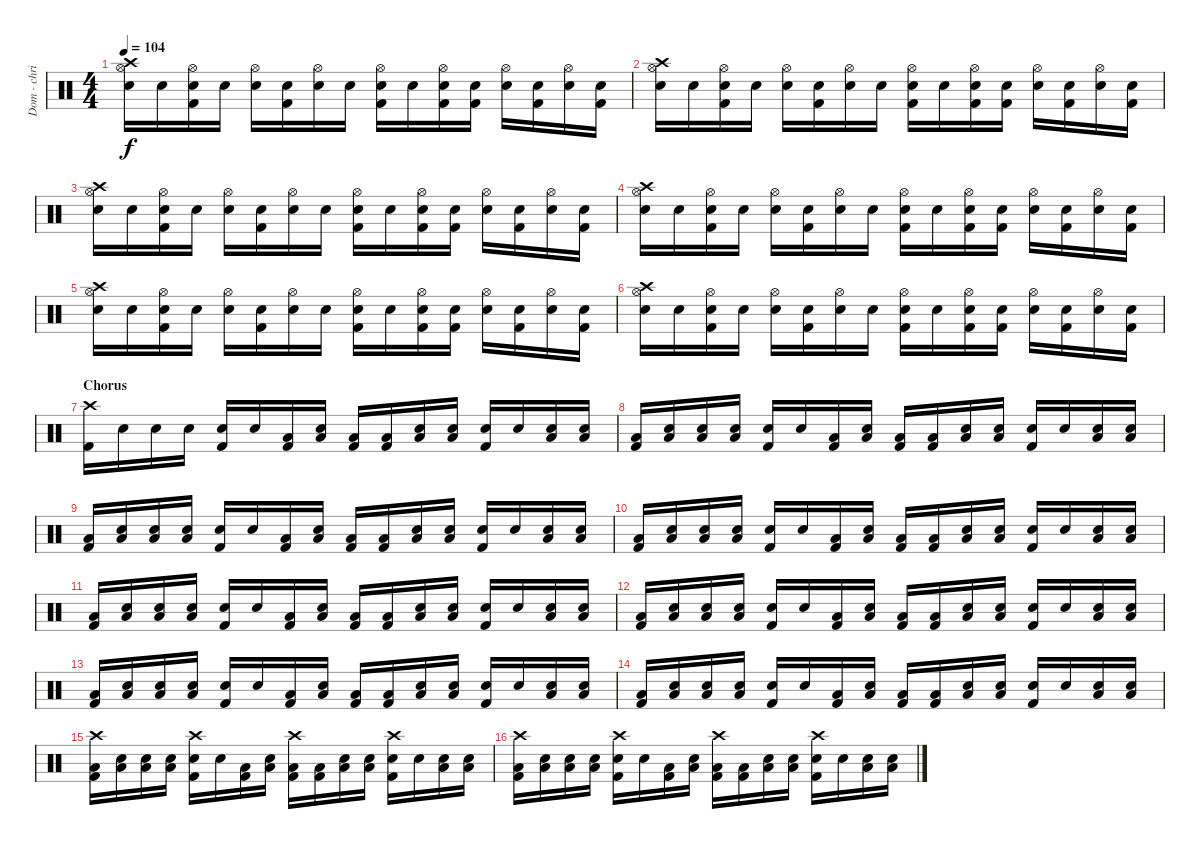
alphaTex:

\track ("Dom - chris" "Dom - chri") {instrument percussion}
\staff {score}
\articulation defaults
\ts (4 4)
\tempo 104
\clef neutral
\ks c
("Crash high (hit)" "Hi-Hat (open)" "Snare (hit) 2").16{dy f} "Snare (hit) 2"{x}.16 ("Hi-Hat (open)" "Snare (hit) 2"{x} "Kick (hit) 2").16 "Snare (hit) 2".16 ("Hi-Hat (open)" "Snare (hit) 2"{x}).16 ("Snare (hit) 2"{x} "Kick (hit) 2").16 ("Hi-Hat (open)" "Snare (hit) 2").16 "Snare (hit) 2"{x}.16 ("Hi-Hat (open)" "Snare (hit) 2"{x} "Kick (hit) 2").16 "Snare (hit) 2".16 ("Hi-Hat (open)" "Snare (hit) 2"{x} "Kick (hit) 2").16 ("Snare (hit) 2"{x} "Kick (hit) 2").16 ("Hi-Hat (open)" "Snare (hit) 2").16 ("Snare (hit) 2"{x} "Kick (hit) 2").16 ("Hi-Hat (open)" "Snare (hit) 2").16 ("Snare (hit) 2"{x} "Kick (hit) 2").16 |
("Crash high (hit)" "Hi-Hat (open)" "Snare (hit) 2").16 "Snare (hit) 2"{x}.16 ("Hi-Hat (open)" "Snare (hit) 2"{x} "Kick (hit) 2").16 "Snare (hit) 2".16 ("Hi-Hat (open)" "Snare (hit) 2"{x}).16 ("Snare (hit) 2"{x} "Kick (hit) 2").16 ("Hi-Hat (open)" "Snare (hit) 2").16 "Snare (hit) 2"{x}.16 ("Hi-Hat (open)" "Snare (hit) 2"{x} "Kick (hit) 2").16 "Snare (hit) 2".16 ("Hi-Hat (open)" "Snare (hit) 2"{x} "Kick (hit) 2").16 ("Snare (hit) 2"{x} "Kick (hit) 2").16 ("Hi-Hat (open)" "Snare (hit) 2").16 ("Snare (hit) 2"{x} "Kick (hit) 2").16 ("Hi-Hat (open)" "Snare (hit) 2").16 ("Snare (hit) 2"{x} "Kick (hit) 2").16 |
("Crash high (hit)" "Hi-Hat (open)" "Snare (hit) 2").16 "Snare (hit) 2"{x}.16 ("Hi-Hat (open)" "Snare (hit) 2"{x} "Kick (hit) 2").16 "Snare (hit) 2".16 ("Hi-Hat (open)" "Snare (hit) 2"{x}).16 ("Snare (hit) 2"{x} "Kick (hit) 2").16 ("Hi-Hat (open)" "Snare (hit) 2").16 "Snare (hit) 2"{x}.16 ("Hi-Hat (open)" "Snare (hit) 2"{x} "Kick (hit) 2").16 "Snare (hit) 2".16 ("Hi-Hat (open)" "Snare (hit) 2"{x} "Kick (hit) 2").16 ("Snare (hit) 2"{x} "Kick (hit) 2").16 ("Hi-Hat (open)" "Snare (hit) 2").16 ("Snare (hit) 2"{x} "Kick (hit) 2").16 ("Hi-Hat (open)" "Snare (hit) 2").16 ("Snare (hit) 2"{x} "Kick (hit) 2").16 |
("Crash high (hit)" "Hi-Hat (open)" "Snare (hit) 2").16 "Snare (hit) 2"{x}.16 ("Hi-Hat (open)" "Snare (hit) 2"{x} "Kick (hit) 2").16 "Snare (hit) 2".16 ("Hi-Hat (open)" "Snare (hit) 2"{x}).16 ("Snare (hit) 2"{x} "Kick (hit) 2").16 ("Hi-Hat (open)" "Snare (hit) 2").16 "Snare (hit) 2"{x}.16 ("Hi-Hat (open)" "Snare (hit) 2"{x} "Kick (hit) 2").16 "Snare (hit) 2".16 ("Hi-Hat (open)" "Snare (hit) 2"{x} "Kick (hit) 2").16 ("Snare (hit) 2"{x} "Kick (hit) 2").16 ("Hi-Hat (open)" "Snare (hit) 2").16 ("Snare (hit) 2"{x} "Kick (hit) 2").16 ("Hi-Hat (open)" "Snare (hit) 2").16 ("Snare (hit) 2"{x} "Kick (hit) 2").16 |
("Crash high (hit)" "Hi-Hat (open)" "Snare (hit) 2").16 "Snare (hit) 2"{x}.16 ("Hi-Hat (open)" "Snare (hit) 2"{x} "Kick (hit) 2").16 "Snare (hit) 2".16 ("Hi-Hat (open)" "Snare (hit) 2"{x}).16 ("Snare (hit) 2"{x} "Kick (hit) 2").16 ("Hi-Hat (open)" "Snare (hit) 2").16 "Snare (hit) 2"{x}.16 ("Hi-Hat (open)" "Snare (hit) 2"{x} "Kick (hit) 2").16 "Snare (hit) 2".16 ("Hi-Hat (open)" "Snare (hit) 2"{x} "Kick (hit) 2").16 ("Snare (hit) 2"{x} "Kick (hit) 2").16 ("Hi-Hat (open)" "Snare (hit) 2").16 ("Snare (hit) 2"{x} "Kick (hit) 2").16 ("Hi-Hat (open)" "Snare (hit) 2").16 ("Snare (hit) 2"{x} "Kick (hit) 2").16 |
("Crash high (hit)" "Hi-Hat (open)" "Snare (hit) 2").16 "Snare (hit) 2"{x}.16 ("Hi-Hat (open)" "Snare (hit) 2"{x} "Kick (hit) 2").16 "Snare (hit) 2".16 ("Hi-Hat (open)" "Snare (hit) 2"{x}).16 ("Snare (hit) 2"{x} "Kick (hit) 2").16 ("Hi-Hat (open)" "Snare (hit) 2").16 "Snare (hit) 2"{x}.16 ("Hi-Hat (open)" "Snare (hit) 2"{x} "Kick (hit) 2").16 "Snare (hit) 2".16 ("Hi-Hat (open)" "Snare (hit) 2"{x} "Kick (hit) 2").16 ("Snare (hit) 2"{x} "Kick (hit) 2").16 ("Hi-Hat (open)" "Snare (hit) 2").16 ("Snare (hit) 2"{x} "Kick (hit) 2").16 ("Hi-Hat (open)" "Snare (hit) 2").16 ("Snare (hit) 2"{x} "Kick (hit) 2").16 |
\section ("" "Chorus")
("Crash high (hit)" "Kick (hit) 2").16 "Snare (hit)"{x}.16 "Snare (hit)"{x}.16 "Snare (hit)"{x}.16 ("Snare (hit) 2" "Kick (hit) 2").16 "Snare (hit)"{x}.16 ("Low Tom (hit)" "Kick (hit) 2").16 ("Low Floor Tom (hit)" "Snare (hit)"{x}).16 ("Low Tom (hit)" "Kick (hit) 2").16 ("Low Floor Tom (hit)" "Kick (hit) 2"{x}).16 ("Low Tom (hit)" "Snare (hit)"{x}).16 ("Low Floor Tom (hit)" "Snare (hit)"{x}).16 ("Snare (hit) 2" "Kick (hit) 2").16 "Snare (hit)"{x}.16 ("Low Tom (hit)" "Snare (hit)"{x}).16 ("Low Floor Tom (hit)" "Snare (hit)"{x}).16 |
("Low Tom (hit)" "Kick (hit) 2").16 ("Low Floor Tom (hit)" "Snare (hit)"{x}).16 ("Low Tom (hit)" "Snare (hit)"{x}).16 ("Low Floor Tom (hit)" "Snare (hit)"{x}).16 ("Snare (hit) 2" "Kick (hit) 2").16 "Snare (hit)"{x}.16 ("Low Tom (hit)" "Kick (hit) 2").16 ("Low Floor Tom (hit)" "Snare (hit)"{x}).16 ("Low Tom (hit)" "Kick (hit) 2").16 ("Low Floor Tom (hit)" "Kick (hit) 2"{x}).16 ("Low Tom (hit)" "Snare (hit)"{x}).16 ("Low Floor Tom (hit)" "Snare (hit)"{x}).16 ("Snare (hit) 2" "Kick (hit) 2").16 "Snare (hit)"{x}.16 ("Low Tom (hit)" "Snare (hit)"{x}).16 ("Low Floor Tom (hit)" "Snare (hit)"{x}).16 |
("Low Tom (hit)" "Kick (hit) 2").16 ("Low Floor Tom (hit)" "Snare (hit)"{x}).16 ("Low Tom (hit)" "Snare (hit)"{x}).16 ("Low Floor Tom (hit)" "Snare (hit)"{x}).16 ("Snare (hit) 2" "Kick (hit) 2").16 "Snare (hit)"{x}.16 ("Low Tom (hit)" "Kick (hit) 2").16 ("Low Floor Tom (hit)" "Snare (hit)"{x}).16 ("Low Tom (hit)" "Kick (hit) 2").16 ("Low Floor Tom (hit)" "Kick (hit) 2"{x}).16 ("Low Tom (hit)" "Snare (hit)"{x}).16 ("Low Floor Tom (hit)" "Snare (hit)"{x}).16 ("Snare (hit) 2" "Kick (hit) 2").16 "Snare (hit)"{x}.16 ("Low Tom (hit)" "Snare (hit)"{x}).16 ("Low Floor Tom (hit)" "Snare (hit)"{x}).16 |
("Low Tom (hit)" "Kick (hit) 2").16 ("Low Floor Tom (hit)" "Snare (hit)"{x}).16 ("Low Tom (hit)" "Snare (hit)"{x}).16 ("Low Floor Tom (hit)" "Snare (hit)"{x}).16 ("Snare (hit) 2" "Kick (hit) 2").16 "Snare (hit)"{x}.16 ("Low Tom (hit)" "Kick (hit) 2").16 ("Low Floor Tom (hit)" "Snare (hit)"{x}).16 ("Low Tom (hit)" "Kick (hit) 2").16 ("Low Floor Tom (hit)" "Kick (hit) 2"{x}).16 ("Low Tom (hit)" "Snare (hit)"{x}).16 ("Low Floor Tom (hit)" "Snare (hit)"{x}).16 ("Snare (hit) 2" "Kick (hit) 2").16 "Snare (hit)"{x}.16 ("Low Tom (hit)" "Snare (hit)"{x}).16 ("Low Floor Tom (hit)" "Snare (hit)"{x}).16 |
("Low Tom (hit)" "Kick (hit) 2").16 ("Low Floor Tom (hit)" "Snare (hit)"{x}).16 ("Low Tom (hit)" "Snare (hit)"{x}).16 ("Low Floor Tom (hit)" "Snare (hit)"{x}).16 ("Snare (hit) 2" "Kick (hit) 2").16 "Snare (hit)"{x}.16 ("Low Tom (hit)" "Kick (hit) 2").16 ("Low Floor Tom (hit)" "Snare (hit)"{x}).16 ("Low Tom (hit)" "Kick (hit) 2").16 ("Low Floor Tom (hit)" "Kick (hit) 2"{x}).16 ("Low Tom (hit)" "Snare (hit)"{x}).16 ("Low Floor Tom (hit)" "Snare (hit)"{x}).16 ("Snare (hit) 2" "Kick (hit) 2").16 "Snare (hit)"{x}.16 ("Low Tom (hit)" "Snare (hit)"{x}).16 ("Low Floor Tom (hit)" "Snare (hit)"{x}).16 |
("Low Tom (hit)" "Kick (hit) 2").16 ("Low Floor Tom (hit)" "Snare (hit)"{x}).16 ("Low Tom (hit)" "Snare (hit)"{x}).16 ("Low Floor Tom (hit)" "Snare (hit)"{x}).16 ("Snare (hit) 2" "Kick (hit) 2").16 "Snare (hit)"{x}.16 ("Low Tom (hit)" "Kick (hit) 2").16 ("Low Floor Tom (hit)" "Snare (hit)"{x}).16 ("Low Tom (hit)" "Kick (hit) 2").16 ("Low Floor Tom (hit)" "Kick (hit) 2"{x}).16 ("Low Tom (hit)" "Snare (hit)"{x}).16 ("Low Floor Tom (hit)" "Snare (hit)"{x}).16 ("Snare (hit) 2" "Kick (hit) 2").16 "Snare (hit)"{x}.16 ("Low Tom (hit)" "Snare (hit)"{x}).16 ("Low Floor Tom (hit)" "Snare (hit)"{x}).16 |
("Low Tom (hit)" "Kick (hit) 2").16 ("Low Floor Tom (hit)" "Snare (hit)"{x}).16 ("Low Tom (hit)" "Snare (hit)"{x}).16 ("Low Floor Tom (hit)" "Snare (hit)"{x}).16 ("Snare (hit) 2" "Kick (hit) 2").16 "Snare (hit)"{x}.16 ("Low Tom (hit)" "Kick (hit) 2").16 ("Low Floor Tom (hit)" "Snare (hit)"{x}).16 ("Low Tom (hit)" "Kick (hit) 2").16 ("Low Floor Tom (hit)" "Kick (hit) 2"{x}).16 ("Low Tom (hit)" "Snare (hit)"{x}).16 ("Low Floor Tom (hit)" "Snare (hit)"{x}).16 ("Snare (hit) 2" "Kick (hit) 2").16 "Snare (hit)"{x}.16 ("Low Tom (hit)" "Snare (hit)"{x}).16 ("Low Floor Tom (hit)" "Snare (hit)"{x}).16 |
("Low Tom (hit)" "Kick (hit) 2").16 ("Low Floor Tom (hit)" "Snare (hit)"{x}).16 ("Low Tom (hit)" "Snare (hit)"{x}).16 ("Low Floor Tom (hit)" "Snare (hit)"{x}).16 ("Snare (hit) 2" "Kick (hit) 2").16 "Snare (hit)"{x}.16 ("Low Tom (hit)" "Kick (hit) 2").16 ("Low Floor Tom (hit)" "Snare (hit)"{x}).16 ("Low Tom (hit)" "Kick (hit) 2").16 ("Low Floor Tom (hit)" "Kick (hit) 2"{x}).16 ("Low Tom (hit)" "Snare (hit)"{x}).16 ("Low Floor Tom (hit)" "Snare (hit)"{x}).16 ("Snare (hit) 2" "Kick (hit) 2").16 "Snare (hit)"{x}.16 ("Low Tom (hit)" "Snare (hit)"{x}).16 ("Low Floor Tom (hit)" "Snare (hit)"{x}).16 |
\section ("" "")
("Crash high (hit)" "Low Tom (hit)" "Kick (hit) 2").16 ("Low Floor Tom (hit)" "Snare (hit)"{x}).16 ("Low Tom (hit)" "Snare (hit)"{x}).16 ("Low Floor Tom (hit)" "Snare (hit)"{x}).16 ("Crash high (hit)" "Snare (hit) 2" "Kick (hit) 2").16 "Snare (hit)"{x}.16 ("Low Tom (hit)" "Kick (hit) 2").16 ("Low Floor Tom (hit)" "Snare (hit)"{x}).16 ("Crash high (hit)" "Low Tom (hit)" "Kick (hit) 2").16 ("Low Floor Tom (hit)" "Kick (hit) 2"{x}).16 ("Low Tom (hit)" "Snare (hit)"{x}).16 ("Low Floor Tom (hit)" "Snare (hit)"{x}).16 ("Crash high (hit)" "Snare (hit) 2" "Kick (hit) 2").16 "Snare (hit)"{x}.16 ("Low Tom (hit)" "Snare (hit)"{x}).16 ("Low Floor Tom (hit)" "Snare (hit)"{x}).16 |
("Crash high (hit)" "Low Tom (hit)" "Kick (hit) 2").16 ("Low Floor Tom (hit)" "Snare (hit)"{x}).16 ("Low Tom (hit)" "Snare (hit)"{x}).16 ("Low Floor Tom (hit)" "Snare (hit)"{x}).16 ("Crash high (hit)" "Snare (hit) 2" "Kick (hit) 2").16 "Snare (hit)"{x}.16 ("Low Tom (hit)" "Kick (hit) 2").16 ("Low Floor Tom (hit)" "Snare (hit)"{x}).16 ("Crash high (hit)" "Low Tom (hit)" "Kick (hit) 2").16 ("Low Floor Tom (hit)" "Kick (hit) 2"{x}).16 ("Low Tom (hit)" "Snare (hit)"{x}).16 ("Low Floor Tom (hit)" "Snare (hit)"{x}).16 ("Crash high (hit)" "Snare (hit) 2" "Kick (hit) 2").16 "Snare (hit)"{x}.16 ("Low Tom (hit)" "Snare (hit)"{x}).16 ("Low Floor Tom (hit)" "Snare (hit)"{x}).16
